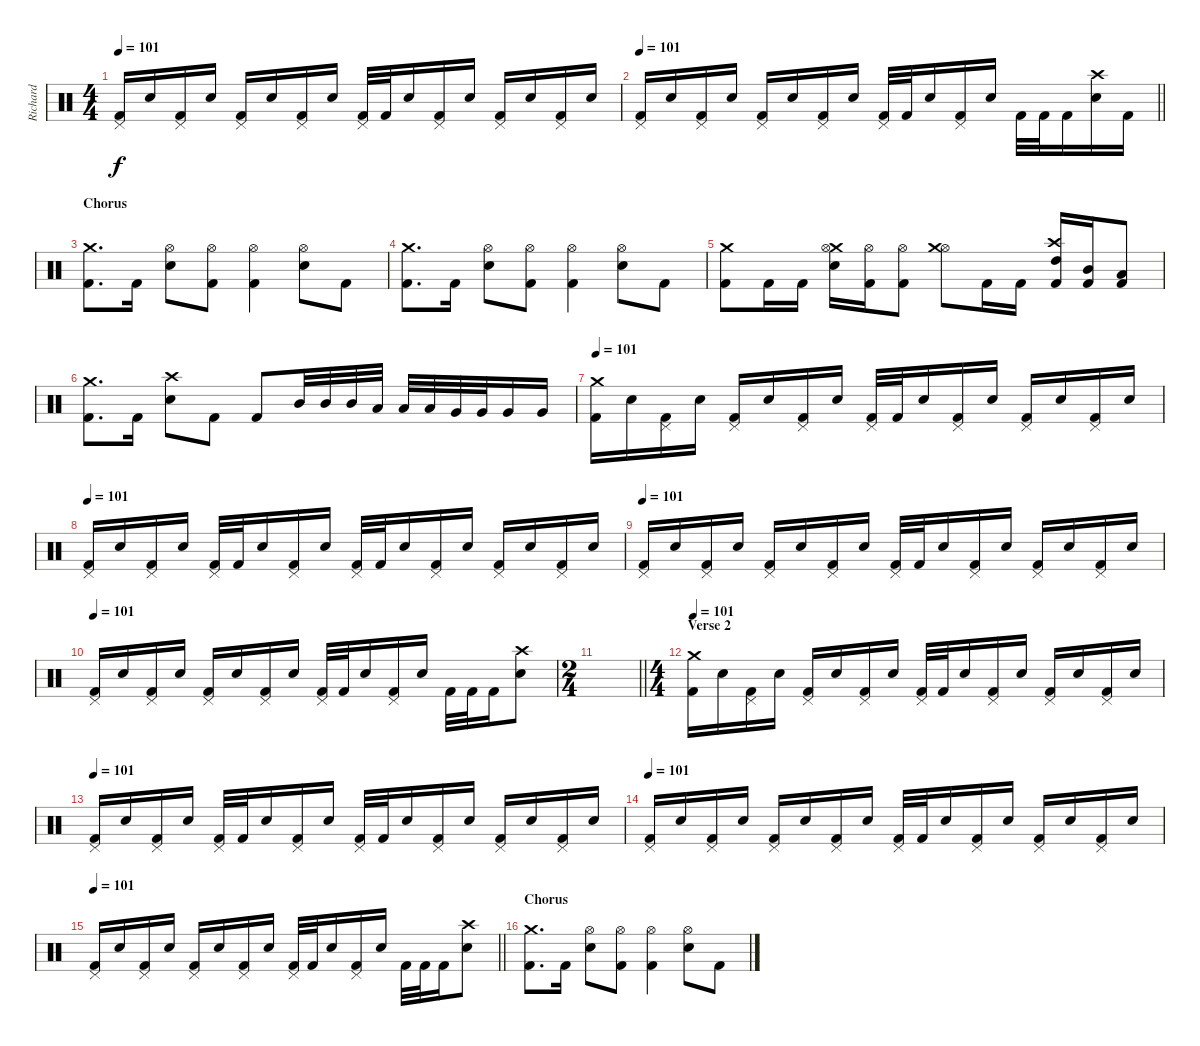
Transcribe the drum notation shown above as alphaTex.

\track ("Richard" "Richard") {instrument percussion}
\staff {score}
\articulation defaults
\ts (4 4)
\tempo 101
\clef neutral
\ks c
("Pedal Hi-Hat (hit)" "Kick (hit) 2").16{dy f} "Electric Snare (hit)".16 ("Pedal Hi-Hat (hit)" "Kick (hit) 2").16 "Electric Snare (hit)".16 ("Pedal Hi-Hat (hit)" "Kick (hit) 2").16 "Electric Snare (hit)".16 ("Pedal Hi-Hat (hit)" "Kick (hit) 2").16 "Electric Snare (hit)".16 ("Pedal Hi-Hat (hit)" "Kick (hit) 2").32 "Kick (hit) 2".32 "Electric Snare (hit)".16 ("Pedal Hi-Hat (hit)" "Kick (hit) 2").16 "Electric Snare (hit)".16 ("Pedal Hi-Hat (hit)" "Kick (hit) 2").16 "Electric Snare (hit)".16 ("Pedal Hi-Hat (hit)" "Kick (hit) 2").16 "Electric Snare (hit)".16 |
\tempo 101
\barLineRight lightlight
("Pedal Hi-Hat (hit)" "Kick (hit) 2").16 "Electric Snare (hit)".16 ("Pedal Hi-Hat (hit)" "Kick (hit) 2").16 "Electric Snare (hit)".16 ("Pedal Hi-Hat (hit)" "Kick (hit) 2").16 "Electric Snare (hit)".16 ("Pedal Hi-Hat (hit)" "Kick (hit) 2").16 "Electric Snare (hit)".16 ("Pedal Hi-Hat (hit)" "Kick (hit) 2").32 "Kick (hit) 2".32 "Electric Snare (hit)".16 ("Pedal Hi-Hat (hit)" "Kick (hit) 2").16 "Electric Snare (hit)".16 "Kick (hit) 2".32 "Kick (hit) 2".32 "Kick (hit) 2".16 ("Crash high (hit)" "Electric Snare (hit)").16 "Kick (hit) 2".16 |
\section ("" "Chorus")
("Crash medium (hit)" "Kick (hit) 2").8{d} "Kick (hit) 2".16 ("Hi-Hat (open)" "Electric Snare (hit)").8 ("Hi-Hat (open)" "Kick (hit) 2").8 ("Hi-Hat (open)" "Kick (hit) 2").4 ("Hi-Hat (open)" "Electric Snare (hit)").8 "Kick (hit) 2".8 |
("Crash medium (hit)" "Kick (hit) 2").8{d} "Kick (hit) 2".16 ("Hi-Hat (open)" "Electric Snare (hit)").8 ("Hi-Hat (open)" "Kick (hit) 2").8 ("Hi-Hat (open)" "Kick (hit) 2").4 ("Hi-Hat (open)" "Electric Snare (hit)").8 "Kick (hit) 2".8 |
("Crash medium (hit)" "Kick (hit) 2").8 "Kick (hit) 2".16 "Kick (hit) 2".16 ("Crash medium (hit)" "Hi-Hat (open)" "Electric Snare (hit)").16 ("Hi-Hat (open)" "Kick (hit) 2").16 ("Hi-Hat (open)" "Kick (hit) 2").8 ("Hi-Hat (open)" "Crash medium (hit)").8 "Kick (hit) 2".16 "Kick (hit) 2".16 ("Crash high (hit)" "High Tom (hit)" "Kick (hit) 2").16 ("Mid Tom (hit)" "Kick (hit) 2").16 ("Low Tom (hit)" "Kick (hit) 2").8 |
("Crash medium (hit)" "Kick (hit) 2").8{d} "Kick (hit) 2".16 ("Crash high (hit)" "Electric Snare (hit)").8 "Kick (hit) 2".8 "Kick (hit) 2".8 "Mid Tom (hit)".32 "Mid Tom (hit)".32 "Mid Tom (hit)".32 "Low Tom (hit)".32 "Low Tom (hit)".32 "Low Tom (hit)".32 "Very Low Tom (hit)".32 "Very Low Tom (hit)".32 "Very Low Tom (hit)".16 "Very Low Tom (hit)".16 |
\tempo 101
("Crash medium (hit)" "Kick (hit) 2").16 "Electric Snare (hit)".16 ("Pedal Hi-Hat (hit)" "Kick (hit) 2").16 "Electric Snare (hit)".16 ("Pedal Hi-Hat (hit)" "Kick (hit) 2").16 "Electric Snare (hit)".16 ("Pedal Hi-Hat (hit)" "Kick (hit) 2").16 "Electric Snare (hit)".16 ("Pedal Hi-Hat (hit)" "Kick (hit) 2").32 "Kick (hit) 2".32 "Electric Snare (hit)".16 ("Pedal Hi-Hat (hit)" "Kick (hit) 2").16 "Electric Snare (hit)".16 ("Pedal Hi-Hat (hit)" "Kick (hit) 2").16 "Electric Snare (hit)".16 ("Pedal Hi-Hat (hit)" "Kick (hit) 2").16 "Electric Snare (hit)".16 |
\tempo 101
("Pedal Hi-Hat (hit)" "Kick (hit) 2").16 "Electric Snare (hit)".16 ("Pedal Hi-Hat (hit)" "Kick (hit) 2").16 "Electric Snare (hit)".16 ("Pedal Hi-Hat (hit)" "Kick (hit) 2").32 "Kick (hit) 2".32 "Electric Snare (hit)".16 ("Pedal Hi-Hat (hit)" "Kick (hit) 2").16 "Electric Snare (hit)".16 ("Pedal Hi-Hat (hit)" "Kick (hit) 2").32 "Kick (hit) 2".32 "Electric Snare (hit)".16 ("Pedal Hi-Hat (hit)" "Kick (hit) 2").16 "Electric Snare (hit)".16 ("Pedal Hi-Hat (hit)" "Kick (hit) 2").16 "Electric Snare (hit)".16 ("Pedal Hi-Hat (hit)" "Kick (hit) 2").16 "Electric Snare (hit)".16 |
\tempo 101
("Pedal Hi-Hat (hit)" "Kick (hit) 2").16 "Electric Snare (hit)".16 ("Pedal Hi-Hat (hit)" "Kick (hit) 2").16 "Electric Snare (hit)".16 ("Pedal Hi-Hat (hit)" "Kick (hit) 2").16 "Electric Snare (hit)".16 ("Pedal Hi-Hat (hit)" "Kick (hit) 2").16 "Electric Snare (hit)".16 ("Pedal Hi-Hat (hit)" "Kick (hit) 2").32 "Kick (hit) 2".32 "Electric Snare (hit)".16 ("Pedal Hi-Hat (hit)" "Kick (hit) 2").16 "Electric Snare (hit)".16 ("Pedal Hi-Hat (hit)" "Kick (hit) 2").16 "Electric Snare (hit)".16 ("Pedal Hi-Hat (hit)" "Kick (hit) 2").16 "Electric Snare (hit)".16 |
\tempo 101
("Pedal Hi-Hat (hit)" "Kick (hit) 2").16 "Electric Snare (hit)".16 ("Pedal Hi-Hat (hit)" "Kick (hit) 2").16 "Electric Snare (hit)".16 ("Pedal Hi-Hat (hit)" "Kick (hit) 2").16 "Electric Snare (hit)".16 ("Pedal Hi-Hat (hit)" "Kick (hit) 2").16 "Electric Snare (hit)".16 ("Pedal Hi-Hat (hit)" "Kick (hit) 2").32 "Kick (hit) 2".32 "Electric Snare (hit)".16 ("Pedal Hi-Hat (hit)" "Kick (hit) 2").16 "Electric Snare (hit)".16 "Kick (hit) 2".32 "Kick (hit) 2".32 "Kick (hit) 2".16 ("Crash high (hit)" "Electric Snare (hit)").8 |
\ts (2 4)
\barLineRight lightlight
|
\ts (4 4)
\section ("" "Verse 2")
\tempo 101
("Crash medium (hit)" "Kick (hit) 2").16 "Electric Snare (hit)".16 ("Pedal Hi-Hat (hit)" "Kick (hit) 2").16 "Electric Snare (hit)".16 ("Pedal Hi-Hat (hit)" "Kick (hit) 2").16 "Electric Snare (hit)".16 ("Pedal Hi-Hat (hit)" "Kick (hit) 2").16 "Electric Snare (hit)".16 ("Pedal Hi-Hat (hit)" "Kick (hit) 2").32 "Kick (hit) 2".32 "Electric Snare (hit)".16 ("Pedal Hi-Hat (hit)" "Kick (hit) 2").16 "Electric Snare (hit)".16 ("Pedal Hi-Hat (hit)" "Kick (hit) 2").16 "Electric Snare (hit)".16 ("Pedal Hi-Hat (hit)" "Kick (hit) 2").16 "Electric Snare (hit)".16 |
\tempo 101
("Pedal Hi-Hat (hit)" "Kick (hit) 2").16 "Electric Snare (hit)".16 ("Pedal Hi-Hat (hit)" "Kick (hit) 2").16 "Electric Snare (hit)".16 ("Pedal Hi-Hat (hit)" "Kick (hit) 2").32 "Kick (hit) 2".32 "Electric Snare (hit)".16 ("Pedal Hi-Hat (hit)" "Kick (hit) 2").16 "Electric Snare (hit)".16 ("Pedal Hi-Hat (hit)" "Kick (hit) 2").32 "Kick (hit) 2".32 "Electric Snare (hit)".16 ("Pedal Hi-Hat (hit)" "Kick (hit) 2").16 "Electric Snare (hit)".16 ("Pedal Hi-Hat (hit)" "Kick (hit) 2").16 "Electric Snare (hit)".16 ("Pedal Hi-Hat (hit)" "Kick (hit) 2").16 "Electric Snare (hit)".16 |
\tempo 101
("Pedal Hi-Hat (hit)" "Kick (hit) 2").16 "Electric Snare (hit)".16 ("Pedal Hi-Hat (hit)" "Kick (hit) 2").16 "Electric Snare (hit)".16 ("Pedal Hi-Hat (hit)" "Kick (hit) 2").16 "Electric Snare (hit)".16 ("Pedal Hi-Hat (hit)" "Kick (hit) 2").16 "Electric Snare (hit)".16 ("Pedal Hi-Hat (hit)" "Kick (hit) 2").32 "Kick (hit) 2".32 "Electric Snare (hit)".16 ("Pedal Hi-Hat (hit)" "Kick (hit) 2").16 "Electric Snare (hit)".16 ("Pedal Hi-Hat (hit)" "Kick (hit) 2").16 "Electric Snare (hit)".16 ("Pedal Hi-Hat (hit)" "Kick (hit) 2").16 "Electric Snare (hit)".16 |
\tempo 101
\barLineRight lightlight
("Pedal Hi-Hat (hit)" "Kick (hit) 2").16 "Electric Snare (hit)".16 ("Pedal Hi-Hat (hit)" "Kick (hit) 2").16 "Electric Snare (hit)".16 ("Pedal Hi-Hat (hit)" "Kick (hit) 2").16 "Electric Snare (hit)".16 ("Pedal Hi-Hat (hit)" "Kick (hit) 2").16 "Electric Snare (hit)".16 ("Pedal Hi-Hat (hit)" "Kick (hit) 2").32 "Kick (hit) 2".32 "Electric Snare (hit)".16 ("Pedal Hi-Hat (hit)" "Kick (hit) 2").16 "Electric Snare (hit)".16 "Kick (hit) 2".32 "Kick (hit) 2".32 "Kick (hit) 2".16 ("Crash high (hit)" "Electric Snare (hit)").8 |
\section ("" "Chorus")
("Crash medium (hit)" "Kick (hit) 2").8{d} "Kick (hit) 2".16 ("Hi-Hat (open)" "Electric Snare (hit)").8 ("Hi-Hat (open)" "Kick (hit) 2").8 ("Hi-Hat (open)" "Kick (hit) 2").4 ("Hi-Hat (open)" "Electric Snare (hit)").8 "Kick (hit) 2".8
